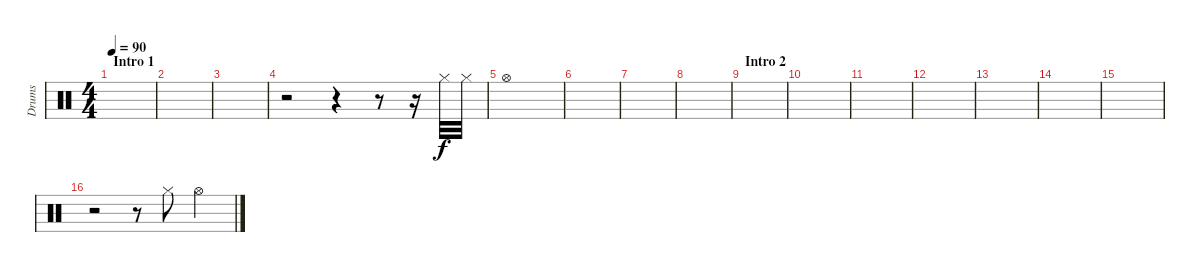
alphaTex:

\track ("Drums" "Drums") {instrument percussion}
\staff {score}
\articulation defaults
\ts (4 4)
\section ("" "Intro 1")
\tempo 90
\clef neutral
\ks c
|
|
|
r.2 r.4 r.8 r.16 "Hi-Hat (closed)".32 "Hi-Hat (closed)".32 |
"Hi-Hat (open)".1 |
|
|
|
\section ("" "Intro 2")
|
|
|
|
|
|
|
r.2 r.8 "Hi-Hat (closed)".8{dy f} "Hi-Hat (open)".4
